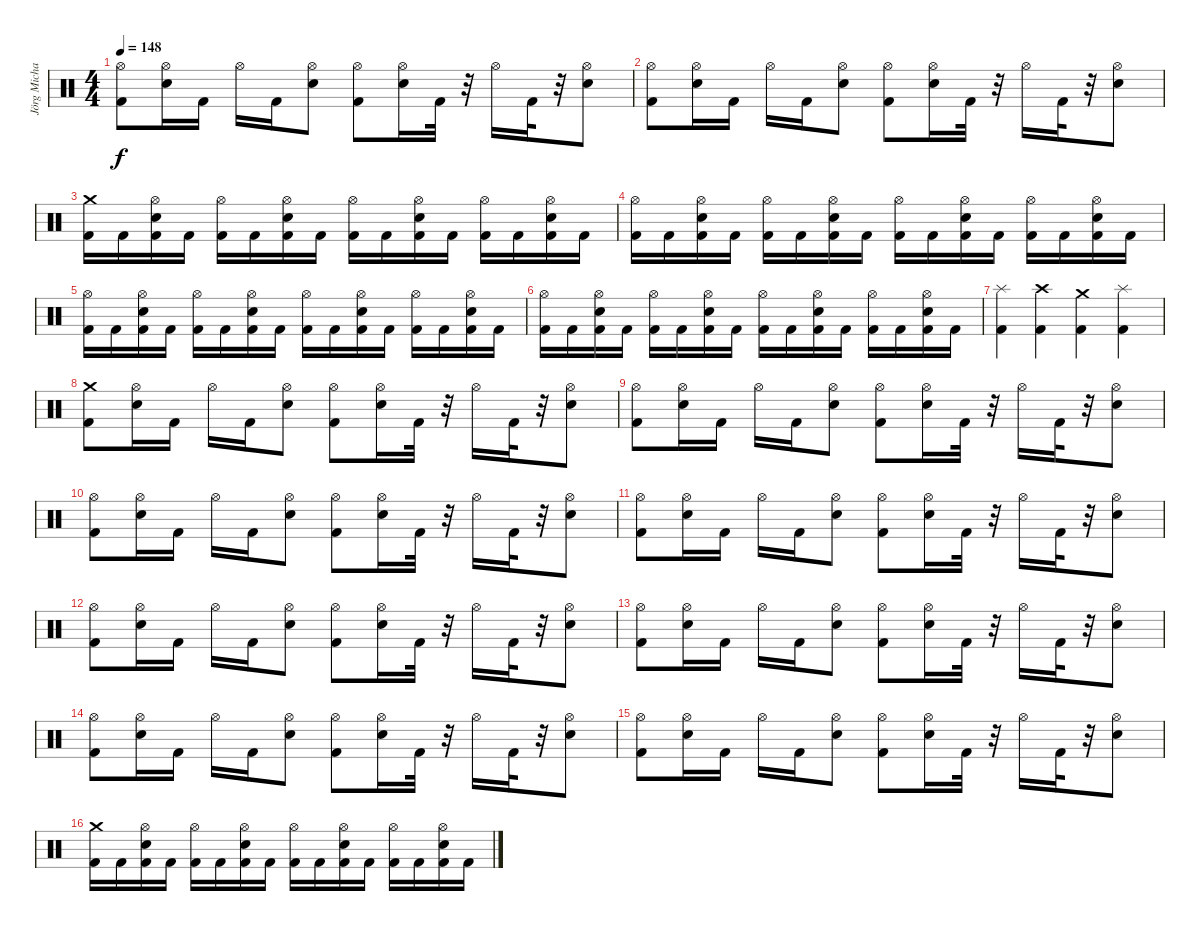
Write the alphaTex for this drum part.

\track ("Jörg Michael" "Jörg Micha") {instrument percussion}
\staff {score}
\articulation defaults
\ts (4 4)
\tempo 148
\clef neutral
\ks c
("Hi-Hat (open)" "Kick (hit) 2").8{dy f} ("Hi-Hat (open)" "Electric Snare (hit)").16 "Kick (hit) 2".16 "Hi-Hat (open)".16 "Kick (hit) 2".16 ("Hi-Hat (open)" "Electric Snare (hit)").8 ("Hi-Hat (open)" "Kick (hit) 2").8 ("Hi-Hat (open)" "Electric Snare (hit)").16 "Kick (hit) 2".32 r.32 "Hi-Hat (open)".16 "Kick (hit) 2".32 r.32 ("Hi-Hat (open)" "Electric Snare (hit)").8 |
("Hi-Hat (open)" "Kick (hit) 2").8 ("Hi-Hat (open)" "Electric Snare (hit)").16 "Kick (hit) 2".16 "Hi-Hat (open)".16 "Kick (hit) 2".16 ("Hi-Hat (open)" "Electric Snare (hit)").8 ("Hi-Hat (open)" "Kick (hit) 2").8 ("Hi-Hat (open)" "Electric Snare (hit)").16 "Kick (hit) 2".32 r.32 "Hi-Hat (open)".16 "Kick (hit) 2".32 r.32 ("Hi-Hat (open)" "Electric Snare (hit)").8 |
("Crash medium (hit)" "Kick (hit) 2").16 "Kick (hit) 2".16 ("Hi-Hat (open)" "Electric Snare (hit)" "Kick (hit) 2").16 "Kick (hit) 2".16 ("Hi-Hat (open)" "Kick (hit) 2").16 "Kick (hit) 2".16 ("Hi-Hat (open)" "Electric Snare (hit)" "Kick (hit) 2").16 "Kick (hit) 2".16 ("Hi-Hat (open)" "Kick (hit) 2").16 "Kick (hit) 2".16 ("Hi-Hat (open)" "Electric Snare (hit)" "Kick (hit) 2").16 "Kick (hit) 2".16 ("Hi-Hat (open)" "Kick (hit) 2").16 "Kick (hit) 2".16 ("Hi-Hat (open)" "Electric Snare (hit)" "Kick (hit) 2").16 "Kick (hit) 2".16 |
("Kick (hit) 2" "Hi-Hat (open)").16 "Kick (hit) 2".16 ("Hi-Hat (open)" "Kick (hit) 2" "Electric Snare (hit)").16 "Kick (hit) 2".16 ("Kick (hit) 2" "Hi-Hat (open)").16 "Kick (hit) 2".16 ("Hi-Hat (open)" "Kick (hit) 2" "Electric Snare (hit)").16 "Kick (hit) 2".16 ("Kick (hit) 2" "Hi-Hat (open)").16 "Kick (hit) 2".16 ("Hi-Hat (open)" "Kick (hit) 2" "Electric Snare (hit)").16 "Kick (hit) 2".16 ("Kick (hit) 2" "Hi-Hat (open)").16 "Kick (hit) 2".16 ("Hi-Hat (open)" "Kick (hit) 2" "Electric Snare (hit)").16 "Kick (hit) 2".16 |
("Kick (hit) 2" "Hi-Hat (open)").16 "Kick (hit) 2".16 ("Hi-Hat (open)" "Kick (hit) 2" "Electric Snare (hit)").16 "Kick (hit) 2".16 ("Kick (hit) 2" "Hi-Hat (open)").16 "Kick (hit) 2".16 ("Hi-Hat (open)" "Kick (hit) 2" "Electric Snare (hit)").16 "Kick (hit) 2".16 ("Kick (hit) 2" "Hi-Hat (open)").16 "Kick (hit) 2".16 ("Hi-Hat (open)" "Kick (hit) 2" "Electric Snare (hit)").16 "Kick (hit) 2".16 ("Kick (hit) 2" "Hi-Hat (open)").16 "Kick (hit) 2".16 ("Hi-Hat (open)" "Kick (hit) 2" "Electric Snare (hit)").16 "Kick (hit) 2".16 |
("Kick (hit) 2" "Hi-Hat (open)").16 "Kick (hit) 2".16 ("Hi-Hat (open)" "Kick (hit) 2" "Electric Snare (hit)").16 "Kick (hit) 2".16 ("Kick (hit) 2" "Hi-Hat (open)").16 "Kick (hit) 2".16 ("Hi-Hat (open)" "Kick (hit) 2" "Electric Snare (hit)").16 "Kick (hit) 2".16 ("Kick (hit) 2" "Hi-Hat (open)").16 "Kick (hit) 2".16 ("Hi-Hat (open)" "Kick (hit) 2" "Electric Snare (hit)").16 "Kick (hit) 2".16 ("Kick (hit) 2" "Hi-Hat (open)").16 "Kick (hit) 2".16 ("Hi-Hat (open)" "Kick (hit) 2" "Electric Snare (hit)").16 "Kick (hit) 2".16 |
("Splash (hit)" "Kick (hit) 2").4 ("Crash high (hit)" "Kick (hit) 2").4 ("Crash medium (hit)" "Kick (hit) 2").4 ("Splash (hit)" "Kick (hit) 2").4 |
("Crash medium (hit)" "Kick (hit) 2").8 ("Hi-Hat (open)" "Electric Snare (hit)").16 "Kick (hit) 2".16 "Hi-Hat (open)".16 "Kick (hit) 2".16 ("Hi-Hat (open)" "Electric Snare (hit)").8 ("Hi-Hat (open)" "Kick (hit) 2").8 ("Hi-Hat (open)" "Electric Snare (hit)").16 "Kick (hit) 2".32 r.32 "Hi-Hat (open)".16 "Kick (hit) 2".32 r.32 ("Hi-Hat (open)" "Electric Snare (hit)").8 |
("Hi-Hat (open)" "Kick (hit) 2").8 ("Hi-Hat (open)" "Electric Snare (hit)").16 "Kick (hit) 2".16 "Hi-Hat (open)".16 "Kick (hit) 2".16 ("Hi-Hat (open)" "Electric Snare (hit)").8 ("Hi-Hat (open)" "Kick (hit) 2").8 ("Hi-Hat (open)" "Electric Snare (hit)").16 "Kick (hit) 2".32 r.32 "Hi-Hat (open)".16 "Kick (hit) 2".32 r.32 ("Hi-Hat (open)" "Electric Snare (hit)").8 |
("Hi-Hat (open)" "Kick (hit) 2").8 ("Hi-Hat (open)" "Electric Snare (hit)").16 "Kick (hit) 2".16 "Hi-Hat (open)".16 "Kick (hit) 2".16 ("Hi-Hat (open)" "Electric Snare (hit)").8 ("Hi-Hat (open)" "Kick (hit) 2").8 ("Hi-Hat (open)" "Electric Snare (hit)").16 "Kick (hit) 2".32 r.32 "Hi-Hat (open)".16 "Kick (hit) 2".32 r.32 ("Hi-Hat (open)" "Electric Snare (hit)").8 |
("Hi-Hat (open)" "Kick (hit) 2").8 ("Hi-Hat (open)" "Electric Snare (hit)").16 "Kick (hit) 2".16 "Hi-Hat (open)".16 "Kick (hit) 2".16 ("Hi-Hat (open)" "Electric Snare (hit)").8 ("Hi-Hat (open)" "Kick (hit) 2").8 ("Hi-Hat (open)" "Electric Snare (hit)").16 "Kick (hit) 2".32 r.32 "Hi-Hat (open)".16 "Kick (hit) 2".32 r.32 ("Hi-Hat (open)" "Electric Snare (hit)").8 |
("Hi-Hat (open)" "Kick (hit) 2").8 ("Hi-Hat (open)" "Electric Snare (hit)").16 "Kick (hit) 2".16 "Hi-Hat (open)".16 "Kick (hit) 2".16 ("Hi-Hat (open)" "Electric Snare (hit)").8 ("Hi-Hat (open)" "Kick (hit) 2").8 ("Hi-Hat (open)" "Electric Snare (hit)").16 "Kick (hit) 2".32 r.32 "Hi-Hat (open)".16 "Kick (hit) 2".32 r.32 ("Hi-Hat (open)" "Electric Snare (hit)").8 |
("Hi-Hat (open)" "Kick (hit) 2").8 ("Hi-Hat (open)" "Electric Snare (hit)").16 "Kick (hit) 2".16 "Hi-Hat (open)".16 "Kick (hit) 2".16 ("Hi-Hat (open)" "Electric Snare (hit)").8 ("Hi-Hat (open)" "Kick (hit) 2").8 ("Hi-Hat (open)" "Electric Snare (hit)").16 "Kick (hit) 2".32 r.32 "Hi-Hat (open)".16 "Kick (hit) 2".32 r.32 ("Hi-Hat (open)" "Electric Snare (hit)").8 |
("Hi-Hat (open)" "Kick (hit) 2").8 ("Hi-Hat (open)" "Electric Snare (hit)").16 "Kick (hit) 2".16 "Hi-Hat (open)".16 "Kick (hit) 2".16 ("Hi-Hat (open)" "Electric Snare (hit)").8 ("Hi-Hat (open)" "Kick (hit) 2").8 ("Hi-Hat (open)" "Electric Snare (hit)").16 "Kick (hit) 2".32 r.32 "Hi-Hat (open)".16 "Kick (hit) 2".32 r.32 ("Hi-Hat (open)" "Electric Snare (hit)").8 |
("Hi-Hat (open)" "Kick (hit) 2").8 ("Hi-Hat (open)" "Electric Snare (hit)").16 "Kick (hit) 2".16 "Hi-Hat (open)".16 "Kick (hit) 2".16 ("Hi-Hat (open)" "Electric Snare (hit)").8 ("Hi-Hat (open)" "Kick (hit) 2").8 ("Hi-Hat (open)" "Electric Snare (hit)").16 "Kick (hit) 2".32 r.32 "Hi-Hat (open)".16 "Kick (hit) 2".32 r.32 ("Hi-Hat (open)" "Electric Snare (hit)").8 |
("Crash medium (hit)" "Kick (hit) 2").16 "Kick (hit) 2".16 ("Hi-Hat (open)" "Electric Snare (hit)" "Kick (hit) 2").16 "Kick (hit) 2".16 ("Hi-Hat (open)" "Kick (hit) 2").16 "Kick (hit) 2".16 ("Hi-Hat (open)" "Electric Snare (hit)" "Kick (hit) 2").16 "Kick (hit) 2".16 ("Hi-Hat (open)" "Kick (hit) 2").16 "Kick (hit) 2".16 ("Hi-Hat (open)" "Electric Snare (hit)" "Kick (hit) 2").16 "Kick (hit) 2".16 ("Hi-Hat (open)" "Kick (hit) 2").16 "Kick (hit) 2".16 ("Hi-Hat (open)" "Electric Snare (hit)" "Kick (hit) 2").16 "Kick (hit) 2".16
